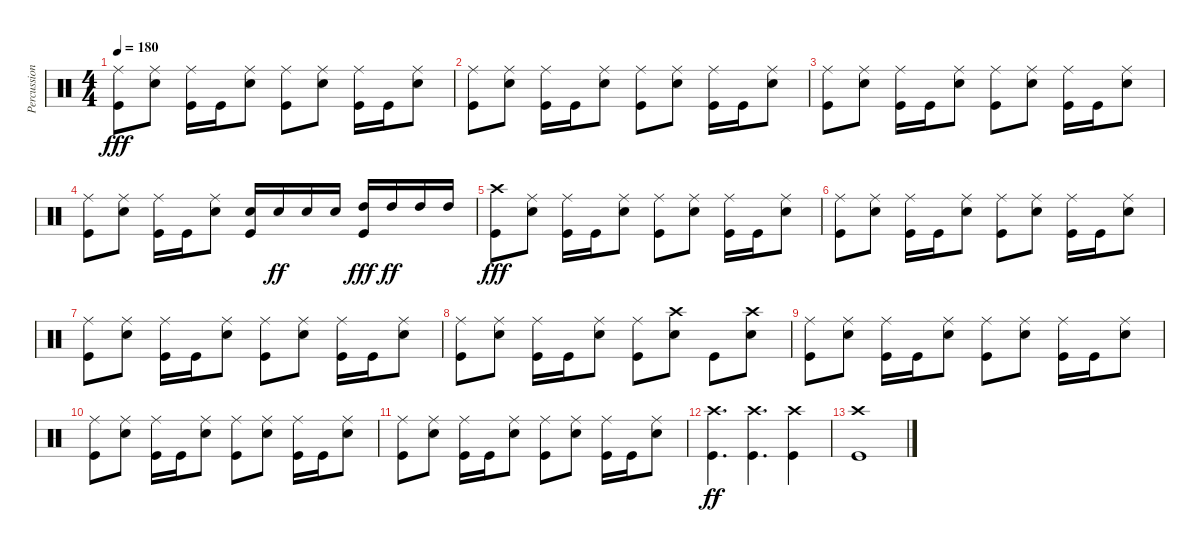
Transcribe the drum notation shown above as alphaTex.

\track ("Percussion" "Percussion") {instrument percussion}
\staff {score}
\articulation defaults
\ts (4 4)
\tempo 180
\clef neutral
\ks c
("Kick (hit)" "Ride (middle)").8{dy fff} ("Snare (hit) 2" "Ride (middle)").8 ("Kick (hit)" "Ride (middle)").16 "Kick (hit)".16 ("Snare (hit) 2" "Ride (middle)").8 ("Kick (hit)" "Ride (middle)").8 ("Snare (hit) 2" "Ride (middle)").8 ("Kick (hit)" "Ride (middle)").16 "Kick (hit)".16 ("Snare (hit) 2" "Ride (middle)").8 |
("Kick (hit)" "Ride (middle)").8 ("Snare (hit) 2" "Ride (middle)").8 ("Kick (hit)" "Ride (middle)").16 "Kick (hit)".16 ("Snare (hit) 2" "Ride (middle)").8 ("Kick (hit)" "Ride (middle)").8 ("Snare (hit) 2" "Ride (middle)").8 ("Kick (hit)" "Ride (middle)").16 "Kick (hit)".16 ("Snare (hit) 2" "Ride (middle)").8 |
("Kick (hit)" "Ride (middle)").8 ("Snare (hit) 2" "Ride (middle)").8 ("Kick (hit)" "Ride (middle)").16 "Kick (hit)".16 ("Snare (hit) 2" "Ride (middle)").8 ("Kick (hit)" "Ride (middle)").8 ("Snare (hit) 2" "Ride (middle)").8 ("Kick (hit)" "Ride (middle)").16 "Kick (hit)".16 ("Snare (hit) 2" "Ride (middle)").8 |
("Kick (hit)" "Ride (middle)").8 ("Snare (hit) 2" "Ride (middle)").8 ("Kick (hit)" "Ride (middle)").16 "Kick (hit)".16 ("Snare (hit) 2" "Ride (middle)").8 ("Kick (hit)" "Snare (hit) 2").16 "Snare (hit) 2".16{dy ff} "Snare (hit) 2".16 "Snare (hit) 2".16 ("Kick (hit)" "High Tom (hit)").16{dy fff} "High Tom (hit)".16{dy ff} "High Tom (hit)".16 "High Tom (hit)".16 |
("Kick (hit)" "Crash high (hit)").8{dy fff} ("Snare (hit) 2" "Ride (middle)").8 ("Kick (hit)" "Ride (middle)").16 "Kick (hit)".16 ("Snare (hit) 2" "Ride (middle)").8 ("Kick (hit)" "Ride (middle)").8 ("Snare (hit) 2" "Ride (middle)").8 ("Kick (hit)" "Ride (middle)").16 "Kick (hit)".16 ("Snare (hit) 2" "Ride (middle)").8 |
("Kick (hit)" "Ride (middle)").8 ("Snare (hit) 2" "Ride (middle)").8 ("Kick (hit)" "Ride (middle)").16 "Kick (hit)".16 ("Snare (hit) 2" "Ride (middle)").8 ("Kick (hit)" "Ride (middle)").8 ("Snare (hit) 2" "Ride (middle)").8 ("Kick (hit)" "Ride (middle)").16 "Kick (hit)".16 ("Snare (hit) 2" "Ride (middle)").8 |
("Kick (hit)" "Ride (middle)").8 ("Snare (hit) 2" "Ride (middle)").8 ("Kick (hit)" "Ride (middle)").16 "Kick (hit)".16 ("Snare (hit) 2" "Ride (middle)").8 ("Kick (hit)" "Ride (middle)").8 ("Snare (hit) 2" "Ride (middle)").8 ("Kick (hit)" "Ride (middle)").16 "Kick (hit)".16 ("Snare (hit) 2" "Ride (middle)").8 |
("Kick (hit)" "Ride (middle)").8 ("Snare (hit) 2" "Ride (middle)").8 ("Kick (hit)" "Ride (middle)").16 "Kick (hit)".16 ("Snare (hit) 2" "Ride (middle)").8 ("Kick (hit)" "Ride (middle)").8 ("Snare (hit) 2" "Crash high (hit)").8 "Kick (hit)".8 ("Snare (hit) 2" "Crash high (hit)").8 |
("Kick (hit)" "Ride (middle)").8 ("Snare (hit) 2" "Ride (middle)").8 ("Kick (hit)" "Ride (middle)").16 "Kick (hit)".16 ("Snare (hit) 2" "Ride (middle)").8 ("Kick (hit)" "Ride (middle)").8 ("Snare (hit) 2" "Ride (middle)").8 ("Kick (hit)" "Ride (middle)").16 "Kick (hit)".16 ("Snare (hit) 2" "Ride (middle)").8 |
("Kick (hit)" "Ride (middle)").8 ("Snare (hit) 2" "Ride (middle)").8 ("Kick (hit)" "Ride (middle)").16 "Kick (hit)".16 ("Snare (hit) 2" "Ride (middle)").8 ("Kick (hit)" "Ride (middle)").8 ("Snare (hit) 2" "Ride (middle)").8 ("Kick (hit)" "Ride (middle)").16 "Kick (hit)".16 ("Snare (hit) 2" "Ride (middle)").8 |
("Kick (hit)" "Ride (middle)").8 ("Snare (hit) 2" "Ride (middle)").8 ("Kick (hit)" "Ride (middle)").16 "Kick (hit)".16 ("Snare (hit) 2" "Ride (middle)").8 ("Kick (hit)" "Ride (middle)").8 ("Snare (hit) 2" "Ride (middle)").8 ("Kick (hit)" "Ride (middle)").16 "Kick (hit)".16 ("Snare (hit) 2" "Ride (middle)").8 |
("Kick (hit)" "Crash high (hit)").4{d dy ff} ("Kick (hit)" "Crash high (hit)").4{d} ("Kick (hit)" "Crash high (hit)").4 |
("Kick (hit)" "Crash high (hit)").1
